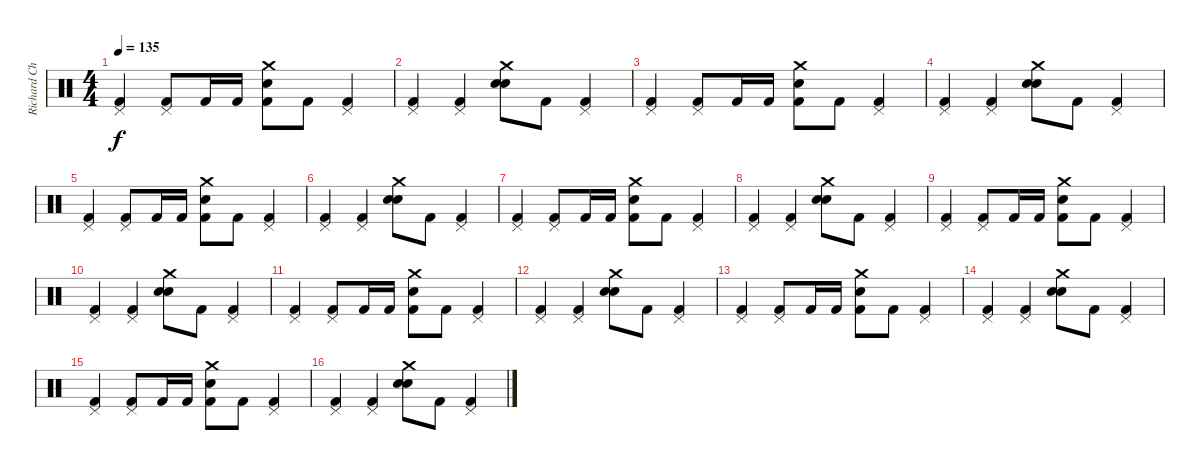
\track ("Richard Christy" "Richard Ch") {instrument percussion}
\staff {score}
\articulation defaults
\ts (4 4)
\tempo 135
\clef neutral
\ks c
("Pedal Hi-Hat (hit)" "Kick (hit) 2").4{dy f} ("Pedal Hi-Hat (hit)" "Kick (hit) 2").8 "Kick (hit) 2".16 "Kick (hit) 2".16 ("Snare (hit) 2" "Crash medium (hit)" "Kick (hit) 2").8 "Kick (hit) 2".8 ("Pedal Hi-Hat (hit)" "Kick (hit) 2").4 |
("Pedal Hi-Hat (hit)" "Kick (hit) 2").4 ("Pedal Hi-Hat (hit)" "Kick (hit) 2").4 ("Snare (hit) 2" "Crash medium (hit)" "Snare (hit) 2").8 "Kick (hit) 2".8 ("Pedal Hi-Hat (hit)" "Kick (hit) 2").4 |
("Pedal Hi-Hat (hit)" "Kick (hit) 2").4 ("Pedal Hi-Hat (hit)" "Kick (hit) 2").8 "Kick (hit) 2".16 "Kick (hit) 2".16 ("Snare (hit) 2" "Crash medium (hit)" "Kick (hit) 2").8 "Kick (hit) 2".8 ("Pedal Hi-Hat (hit)" "Kick (hit) 2").4 |
("Pedal Hi-Hat (hit)" "Kick (hit) 2").4 ("Pedal Hi-Hat (hit)" "Kick (hit) 2").4 ("Snare (hit) 2" "Crash medium (hit)" "Snare (hit) 2").8 "Kick (hit) 2".8 ("Pedal Hi-Hat (hit)" "Kick (hit) 2").4 |
("Pedal Hi-Hat (hit)" "Kick (hit) 2").4 ("Pedal Hi-Hat (hit)" "Kick (hit) 2").8 "Kick (hit) 2".16 "Kick (hit) 2".16 ("Snare (hit) 2" "Crash medium (hit)" "Kick (hit) 2").8 "Kick (hit) 2".8 ("Pedal Hi-Hat (hit)" "Kick (hit) 2").4 |
("Pedal Hi-Hat (hit)" "Kick (hit) 2").4 ("Pedal Hi-Hat (hit)" "Kick (hit) 2").4 ("Snare (hit) 2" "Crash medium (hit)" "Snare (hit) 2").8 "Kick (hit) 2".8 ("Pedal Hi-Hat (hit)" "Kick (hit) 2").4 |
("Pedal Hi-Hat (hit)" "Kick (hit) 2").4 ("Pedal Hi-Hat (hit)" "Kick (hit) 2").8 "Kick (hit) 2".16 "Kick (hit) 2".16 ("Snare (hit) 2" "Crash medium (hit)" "Kick (hit) 2").8 "Kick (hit) 2".8 ("Pedal Hi-Hat (hit)" "Kick (hit) 2").4 |
("Pedal Hi-Hat (hit)" "Kick (hit) 2").4 ("Pedal Hi-Hat (hit)" "Kick (hit) 2").4 ("Snare (hit) 2" "Crash medium (hit)" "Snare (hit) 2").8 "Kick (hit) 2".8 ("Pedal Hi-Hat (hit)" "Kick (hit) 2").4 |
("Pedal Hi-Hat (hit)" "Kick (hit) 2").4 ("Pedal Hi-Hat (hit)" "Kick (hit) 2").8 "Kick (hit) 2".16 "Kick (hit) 2".16 ("Snare (hit) 2" "Crash medium (hit)" "Kick (hit) 2").8 "Kick (hit) 2".8 ("Pedal Hi-Hat (hit)" "Kick (hit) 2").4 |
("Pedal Hi-Hat (hit)" "Kick (hit) 2").4 ("Pedal Hi-Hat (hit)" "Kick (hit) 2").4 ("Snare (hit) 2" "Crash medium (hit)" "Snare (hit) 2").8 "Kick (hit) 2".8 ("Pedal Hi-Hat (hit)" "Kick (hit) 2").4 |
("Pedal Hi-Hat (hit)" "Kick (hit) 2").4 ("Pedal Hi-Hat (hit)" "Kick (hit) 2").8 "Kick (hit) 2".16 "Kick (hit) 2".16 ("Snare (hit) 2" "Crash medium (hit)" "Kick (hit) 2").8 "Kick (hit) 2".8 ("Pedal Hi-Hat (hit)" "Kick (hit) 2").4 |
("Pedal Hi-Hat (hit)" "Kick (hit) 2").4 ("Pedal Hi-Hat (hit)" "Kick (hit) 2").4 ("Snare (hit) 2" "Crash medium (hit)" "Snare (hit) 2").8 "Kick (hit) 2".8 ("Pedal Hi-Hat (hit)" "Kick (hit) 2").4 |
("Pedal Hi-Hat (hit)" "Kick (hit) 2").4 ("Pedal Hi-Hat (hit)" "Kick (hit) 2").8 "Kick (hit) 2".16 "Kick (hit) 2".16 ("Snare (hit) 2" "Crash medium (hit)" "Kick (hit) 2").8 "Kick (hit) 2".8 ("Pedal Hi-Hat (hit)" "Kick (hit) 2").4 |
("Pedal Hi-Hat (hit)" "Kick (hit) 2").4 ("Pedal Hi-Hat (hit)" "Kick (hit) 2").4 ("Snare (hit) 2" "Crash medium (hit)" "Snare (hit) 2").8 "Kick (hit) 2".8 ("Pedal Hi-Hat (hit)" "Kick (hit) 2").4 |
("Pedal Hi-Hat (hit)" "Kick (hit) 2").4 ("Pedal Hi-Hat (hit)" "Kick (hit) 2").8 "Kick (hit) 2".16 "Kick (hit) 2".16 ("Snare (hit) 2" "Crash medium (hit)" "Kick (hit) 2").8 "Kick (hit) 2".8 ("Pedal Hi-Hat (hit)" "Kick (hit) 2").4 |
("Pedal Hi-Hat (hit)" "Kick (hit) 2").4 ("Pedal Hi-Hat (hit)" "Kick (hit) 2").4 ("Snare (hit) 2" "Crash medium (hit)" "Snare (hit) 2").8 "Kick (hit) 2".8 ("Pedal Hi-Hat (hit)" "Kick (hit) 2").4
